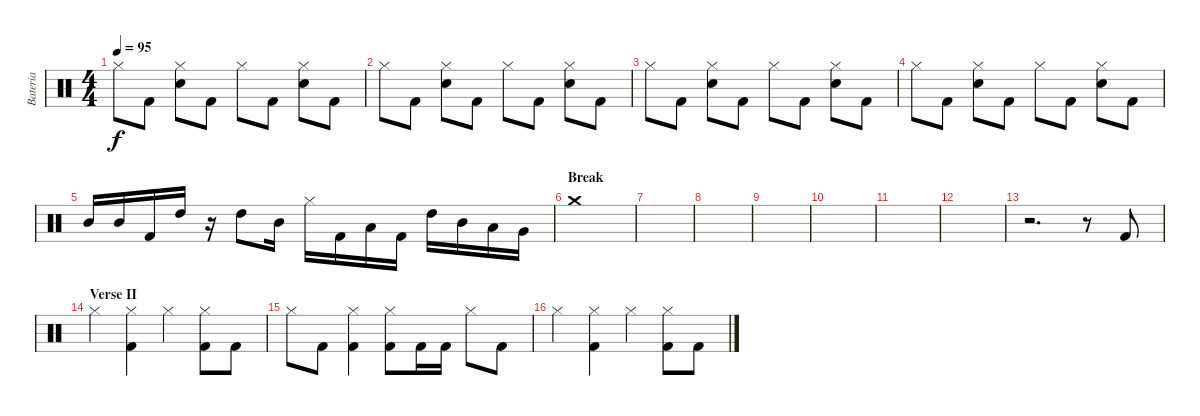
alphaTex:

\track ("Bateria" "Bateria") {instrument percussion}
\staff {score}
\articulation defaults
\ts (4 4)
\tempo 95
\clef neutral
\ks c "Hi-Hat (closed)".8{dy f} "Kick (hit) 2".8
("Hi-Hat (closed)" "Electric Snare (hit)").8 "Kick (hit) 2".8 "Hi-Hat (closed)".8 "Kick (hit) 2".8 ("Hi-Hat (closed)" "Electric Snare (hit)").8 "Kick (hit) 2".8 |
"Hi-Hat (closed)".8 "Kick (hit) 2".8 ("Hi-Hat (closed)" "Electric Snare (hit)").8 "Kick (hit) 2".8 "Hi-Hat (closed)".8 "Kick (hit) 2".8 ("Hi-Hat (closed)" "Electric Snare (hit)").8 "Kick (hit) 2".8 |
"Hi-Hat (closed)".8 "Kick (hit) 2".8 ("Hi-Hat (closed)" "Electric Snare (hit)").8 "Kick (hit) 2".8 "Hi-Hat (closed)".8 "Kick (hit) 2".8 ("Hi-Hat (closed)" "Electric Snare (hit)").8 "Kick (hit) 2".8 |
"Hi-Hat (closed)".8 "Kick (hit) 2".8 ("Hi-Hat (closed)" "Electric Snare (hit)").8 "Kick (hit) 2".8 "Hi-Hat (closed)".8 "Kick (hit) 2".8 ("Hi-Hat (closed)" "Electric Snare (hit)").8 "Kick (hit) 2".8 |
"Mid Tom (hit)".16 "Mid Tom (hit)".16 "Kick (hit) 2".16 "High Tom (hit)".16 r.16 "High Tom (hit)".8 "Mid Tom (hit)".16 "Hi-Hat (closed)".16 "Kick (hit) 2".16 "Low Tom (hit)".16 "Kick (hit) 2".16 "High Tom (hit)".16 "Mid Tom (hit)".16 "Low Tom (hit)".16 "Very Low Tom (hit)".16 |
\section ("" "Break")
"Crash medium (hit)".1 |
|
|
|
|
|
|
r.2{d} r.8 "Kick (hit) 2".8 |
\section ("" "Verse II")
"Hi-Hat (closed)".4 ("Hi-Hat (closed)" "Kick (hit) 2").4 "Hi-Hat (closed)".4 ("Hi-Hat (closed)" "Kick (hit) 2").8 "Kick (hit) 2".8 |
"Hi-Hat (closed)".8 "Kick (hit) 2".8 ("Hi-Hat (closed)" "Kick (hit) 2").4 ("Hi-Hat (closed)" "Kick (hit) 2").8 "Kick (hit) 2".16 "Kick (hit) 2".16 "Hi-Hat (closed)".8 "Kick (hit) 2".8 |
"Hi-Hat (closed)".4 ("Hi-Hat (closed)" "Kick (hit) 2").4 "Hi-Hat (closed)".4 ("Hi-Hat (closed)" "Kick (hit) 2").8 "Kick (hit) 2".8
